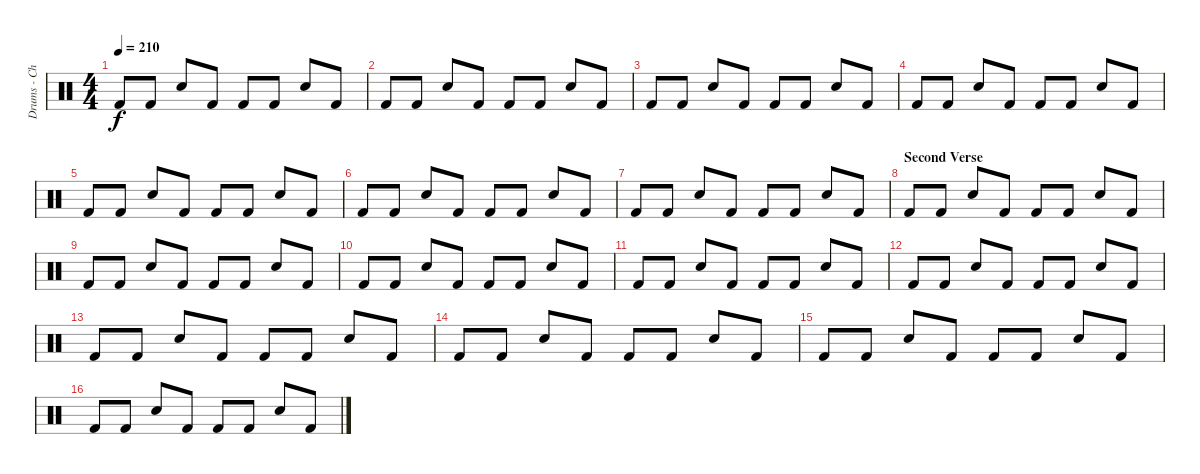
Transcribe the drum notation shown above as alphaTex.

\track ("Drums - Chad Smith" "Drums - Ch") {instrument percussion}
\staff {score}
\articulation defaults
\ts (4 4)
\tempo 210
\clef neutral
\ks c "Kick (hit) 2".8{dy f} "Kick (hit) 2".8 "Electric Snare (hit)".8 "Kick (hit) 2".8 "Kick (hit) 2".8 "Kick (hit) 2".8 "Electric Snare (hit)".8 "Kick (hit) 2".8
|
"Kick (hit) 2".8 "Kick (hit) 2".8 "Electric Snare (hit)".8 "Kick (hit) 2".8 "Kick (hit) 2".8 "Kick (hit) 2".8 "Electric Snare (hit)".8 "Kick (hit) 2".8 |
"Kick (hit) 2".8 "Kick (hit) 2".8 "Electric Snare (hit)".8 "Kick (hit) 2".8 "Kick (hit) 2".8 "Kick (hit) 2".8 "Electric Snare (hit)".8 "Kick (hit) 2".8 |
"Kick (hit) 2".8 "Kick (hit) 2".8 "Electric Snare (hit)".8 "Kick (hit) 2".8 "Kick (hit) 2".8 "Kick (hit) 2".8 "Electric Snare (hit)".8 "Kick (hit) 2".8 |
"Kick (hit) 2".8 "Kick (hit) 2".8 "Electric Snare (hit)".8 "Kick (hit) 2".8 "Kick (hit) 2".8 "Kick (hit) 2".8 "Electric Snare (hit)".8 "Kick (hit) 2".8 |
"Kick (hit) 2".8 "Kick (hit) 2".8 "Electric Snare (hit)".8 "Kick (hit) 2".8 "Kick (hit) 2".8 "Kick (hit) 2".8 "Electric Snare (hit)".8 "Kick (hit) 2".8 |
"Kick (hit) 2".8 "Kick (hit) 2".8 "Electric Snare (hit)".8 "Kick (hit) 2".8 "Kick (hit) 2".8 "Kick (hit) 2".8 "Electric Snare (hit)".8 "Kick (hit) 2".8 |
\section ("" "Second Verse")
"Kick (hit) 2".8 "Kick (hit) 2".8 "Electric Snare (hit)".8 "Kick (hit) 2".8 "Kick (hit) 2".8 "Kick (hit) 2".8 "Electric Snare (hit)".8 "Kick (hit) 2".8 |
"Kick (hit) 2".8 "Kick (hit) 2".8 "Electric Snare (hit)".8 "Kick (hit) 2".8 "Kick (hit) 2".8 "Kick (hit) 2".8 "Electric Snare (hit)".8 "Kick (hit) 2".8 |
"Kick (hit) 2".8 "Kick (hit) 2".8 "Electric Snare (hit)".8 "Kick (hit) 2".8 "Kick (hit) 2".8 "Kick (hit) 2".8 "Electric Snare (hit)".8 "Kick (hit) 2".8 |
"Kick (hit) 2".8 "Kick (hit) 2".8 "Electric Snare (hit)".8 "Kick (hit) 2".8 "Kick (hit) 2".8 "Kick (hit) 2".8 "Electric Snare (hit)".8 "Kick (hit) 2".8 |
"Kick (hit) 2".8 "Kick (hit) 2".8 "Electric Snare (hit)".8 "Kick (hit) 2".8 "Kick (hit) 2".8 "Kick (hit) 2".8 "Electric Snare (hit)".8 "Kick (hit) 2".8 |
"Kick (hit) 2".8 "Kick (hit) 2".8 "Electric Snare (hit)".8 "Kick (hit) 2".8 "Kick (hit) 2".8 "Kick (hit) 2".8 "Electric Snare (hit)".8 "Kick (hit) 2".8 |
"Kick (hit) 2".8 "Kick (hit) 2".8 "Electric Snare (hit)".8 "Kick (hit) 2".8 "Kick (hit) 2".8 "Kick (hit) 2".8 "Electric Snare (hit)".8 "Kick (hit) 2".8 |
"Kick (hit) 2".8 "Kick (hit) 2".8 "Electric Snare (hit)".8 "Kick (hit) 2".8 "Kick (hit) 2".8 "Kick (hit) 2".8 "Electric Snare (hit)".8 "Kick (hit) 2".8 |
"Kick (hit) 2".8 "Kick (hit) 2".8 "Electric Snare (hit)".8 "Kick (hit) 2".8 "Kick (hit) 2".8 "Kick (hit) 2".8 "Electric Snare (hit)".8 "Kick (hit) 2".8
